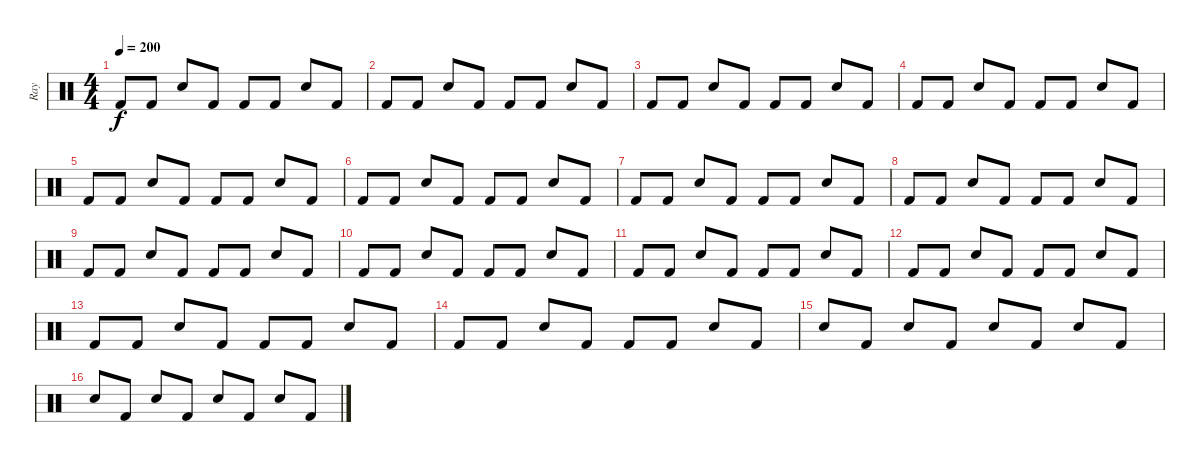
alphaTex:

\track ("Ray" "Ray") {instrument percussion}
\staff {score}
\articulation defaults
\ts (4 4)
\tempo 200
\clef neutral
\ks c "Kick (hit) 2".8{dy f} "Kick (hit) 2".8 "Electric Snare (hit)".8 "Kick (hit) 2".8 "Kick (hit) 2".8 "Kick (hit) 2".8 "Electric Snare (hit)".8 "Kick (hit) 2".8
|
"Kick (hit) 2".8 "Kick (hit) 2".8 "Electric Snare (hit)".8 "Kick (hit) 2".8 "Kick (hit) 2".8 "Kick (hit) 2".8 "Electric Snare (hit)".8 "Kick (hit) 2".8 |
"Kick (hit) 2".8 "Kick (hit) 2".8 "Electric Snare (hit)".8 "Kick (hit) 2".8 "Kick (hit) 2".8 "Kick (hit) 2".8 "Electric Snare (hit)".8 "Kick (hit) 2".8 |
"Kick (hit) 2".8 "Kick (hit) 2".8 "Electric Snare (hit)".8 "Kick (hit) 2".8 "Kick (hit) 2".8 "Kick (hit) 2".8 "Electric Snare (hit)".8 "Kick (hit) 2".8 |
"Kick (hit) 2".8 "Kick (hit) 2".8 "Electric Snare (hit)".8 "Kick (hit) 2".8 "Kick (hit) 2".8 "Kick (hit) 2".8 "Electric Snare (hit)".8 "Kick (hit) 2".8 |
"Kick (hit) 2".8 "Kick (hit) 2".8 "Electric Snare (hit)".8 "Kick (hit) 2".8 "Kick (hit) 2".8 "Kick (hit) 2".8 "Electric Snare (hit)".8 "Kick (hit) 2".8 |
"Kick (hit) 2".8 "Kick (hit) 2".8 "Electric Snare (hit)".8 "Kick (hit) 2".8 "Kick (hit) 2".8 "Kick (hit) 2".8 "Electric Snare (hit)".8 "Kick (hit) 2".8 |
"Kick (hit) 2".8 "Kick (hit) 2".8 "Electric Snare (hit)".8 "Kick (hit) 2".8 "Kick (hit) 2".8 "Kick (hit) 2".8 "Electric Snare (hit)".8 "Kick (hit) 2".8 |
"Kick (hit) 2".8 "Kick (hit) 2".8 "Electric Snare (hit)".8 "Kick (hit) 2".8 "Kick (hit) 2".8 "Kick (hit) 2".8 "Electric Snare (hit)".8 "Kick (hit) 2".8 |
"Kick (hit) 2".8 "Kick (hit) 2".8 "Electric Snare (hit)".8 "Kick (hit) 2".8 "Kick (hit) 2".8 "Kick (hit) 2".8 "Electric Snare (hit)".8 "Kick (hit) 2".8 |
"Kick (hit) 2".8 "Kick (hit) 2".8 "Electric Snare (hit)".8 "Kick (hit) 2".8 "Kick (hit) 2".8 "Kick (hit) 2".8 "Electric Snare (hit)".8 "Kick (hit) 2".8 |
"Kick (hit) 2".8 "Kick (hit) 2".8 "Electric Snare (hit)".8 "Kick (hit) 2".8 "Kick (hit) 2".8 "Kick (hit) 2".8 "Electric Snare (hit)".8 "Kick (hit) 2".8 |
"Kick (hit) 2".8 "Kick (hit) 2".8 "Electric Snare (hit)".8 "Kick (hit) 2".8 "Kick (hit) 2".8 "Kick (hit) 2".8 "Electric Snare (hit)".8 "Kick (hit) 2".8 |
"Kick (hit) 2".8 "Kick (hit) 2".8 "Electric Snare (hit)".8 "Kick (hit) 2".8 "Kick (hit) 2".8 "Kick (hit) 2".8 "Electric Snare (hit)".8 "Kick (hit) 2".8 |
"Electric Snare (hit)".8 "Kick (hit) 2".8 "Electric Snare (hit)".8 "Kick (hit) 2".8 "Electric Snare (hit)".8 "Kick (hit) 2".8 "Electric Snare (hit)".8 "Kick (hit) 2".8 |
"Electric Snare (hit)".8 "Kick (hit) 2".8 "Electric Snare (hit)".8 "Kick (hit) 2".8 "Electric Snare (hit)".8 "Kick (hit) 2".8 "Electric Snare (hit)".8 "Kick (hit) 2".8
